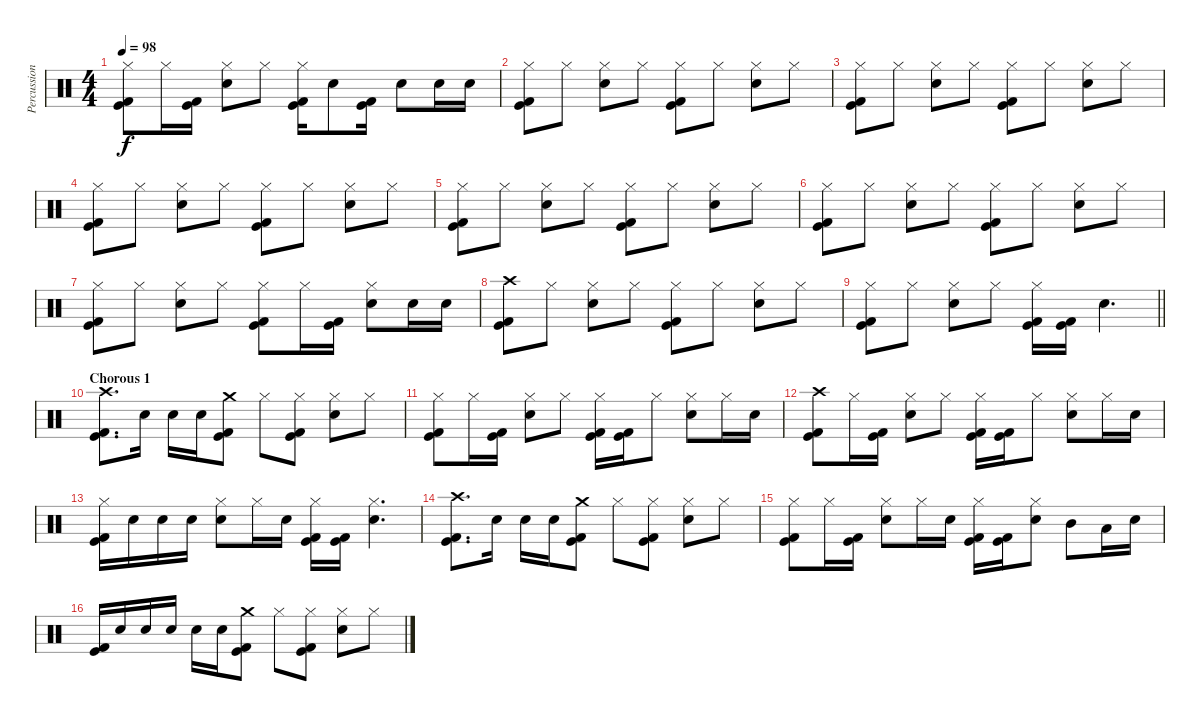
\track ("Percussion" "Percussion") {instrument percussion}
\staff {score}
\articulation defaults
\ts (4 4)
\tempo 98
\clef neutral
\ks c
("Hi-Hat (closed)" "Kick (hit)" "Kick (hit) 2").8{dy f} "Hi-Hat (closed)".16 ("Kick (hit)" "Kick (hit) 2").16 ("Hi-Hat (closed)" "Electric Snare (hit)").8 "Hi-Hat (closed)".8 ("Hi-Hat (closed)" "Kick (hit)" "Kick (hit) 2").16 "Electric Snare (hit)".8 ("Kick (hit)" "Kick (hit) 2").16 "Electric Snare (hit)".8 "Electric Snare (hit)".16 "Electric Snare (hit)".16 |
("Hi-Hat (closed)" "Kick (hit)" "Kick (hit) 2").8 "Hi-Hat (closed)".8 ("Hi-Hat (closed)" "Electric Snare (hit)").8 "Hi-Hat (closed)".8 ("Hi-Hat (closed)" "Kick (hit)" "Kick (hit) 2").8 "Hi-Hat (closed)".8 ("Hi-Hat (closed)" "Electric Snare (hit)").8 "Hi-Hat (closed)".8 |
("Hi-Hat (closed)" "Kick (hit)" "Kick (hit) 2").8 "Hi-Hat (closed)".8 ("Hi-Hat (closed)" "Electric Snare (hit)").8 "Hi-Hat (closed)".8 ("Hi-Hat (closed)" "Kick (hit)" "Kick (hit) 2").8 "Hi-Hat (closed)".8 ("Hi-Hat (closed)" "Electric Snare (hit)").8 "Hi-Hat (closed)".8 |
("Hi-Hat (closed)" "Kick (hit)" "Kick (hit) 2").8 "Hi-Hat (closed)".8 ("Hi-Hat (closed)" "Electric Snare (hit)").8 "Hi-Hat (closed)".8 ("Hi-Hat (closed)" "Kick (hit)" "Kick (hit) 2").8 "Hi-Hat (closed)".8 ("Hi-Hat (closed)" "Electric Snare (hit)").8 "Hi-Hat (closed)".8 |
("Hi-Hat (closed)" "Kick (hit)" "Kick (hit) 2").8 "Hi-Hat (closed)".8 ("Hi-Hat (closed)" "Electric Snare (hit)").8 "Hi-Hat (closed)".8 ("Hi-Hat (closed)" "Kick (hit)" "Kick (hit) 2").8 "Hi-Hat (closed)".8 ("Hi-Hat (closed)" "Electric Snare (hit)").8 "Hi-Hat (closed)".8 |
("Hi-Hat (closed)" "Kick (hit)" "Kick (hit) 2").8 "Hi-Hat (closed)".8 ("Hi-Hat (closed)" "Electric Snare (hit)").8 "Hi-Hat (closed)".8 ("Hi-Hat (closed)" "Kick (hit)" "Kick (hit) 2").8 "Hi-Hat (closed)".8 ("Hi-Hat (closed)" "Electric Snare (hit)").8 "Hi-Hat (closed)".8 |
("Hi-Hat (closed)" "Kick (hit)" "Kick (hit) 2").8 "Hi-Hat (closed)".8 ("Hi-Hat (closed)" "Electric Snare (hit)").8 "Hi-Hat (closed)".8 ("Hi-Hat (closed)" "Kick (hit)" "Kick (hit) 2").8 "Hi-Hat (closed)".16 ("Kick (hit)" "Kick (hit) 2").16 ("Hi-Hat (closed)" "Electric Snare (hit)").8 "Electric Snare (hit)".16 "Electric Snare (hit)".16 |
("Crash high (hit)" "Kick (hit)" "Kick (hit) 2").8 "Hi-Hat (closed)".8 ("Hi-Hat (closed)" "Electric Snare (hit)").8 "Hi-Hat (closed)".8 ("Hi-Hat (closed)" "Kick (hit)" "Kick (hit) 2").8 "Hi-Hat (closed)".8 ("Hi-Hat (closed)" "Electric Snare (hit)").8 "Hi-Hat (closed)".8 |
\barLineRight lightlight
("Hi-Hat (closed)" "Kick (hit)" "Kick (hit) 2").8 "Hi-Hat (closed)".8 ("Hi-Hat (closed)" "Electric Snare (hit)").8 "Hi-Hat (closed)".8 ("Hi-Hat (closed)" "Kick (hit)" "Kick (hit) 2").16 ("Kick (hit)" "Kick (hit) 2").16 "Electric Snare (hit)".4{d} |
\section ("" "Chorous 1")
("Crash high (hit)" "Kick (hit)" "Kick (hit) 2").8{d} "Electric Snare (hit)".16 "Electric Snare (hit)".16 "Electric Snare (hit)".16 ("Crash medium (hit)" "Kick (hit)" "Kick (hit) 2").8 "Hi-Hat (closed)".8 ("Hi-Hat (closed)" "Kick (hit)" "Kick (hit) 2").8 ("Hi-Hat (closed)" "Electric Snare (hit)").8 "Hi-Hat (closed)".8 |
("Hi-Hat (closed)" "Kick (hit)" "Kick (hit) 2").8 "Hi-Hat (closed)".16 ("Kick (hit)" "Kick (hit) 2").16 ("Hi-Hat (closed)" "Electric Snare (hit)").8 "Hi-Hat (closed)".8 ("Hi-Hat (closed)" "Kick (hit)" "Kick (hit) 2").16 ("Kick (hit)" "Kick (hit) 2").16 "Hi-Hat (closed)".8 ("Hi-Hat (closed)" "Electric Snare (hit)").8 "Hi-Hat (closed)".16 "Electric Snare (hit)".16 |
("Crash high (hit)" "Kick (hit)" "Kick (hit) 2").8 "Hi-Hat (closed)".16 ("Kick (hit)" "Kick (hit) 2").16 ("Hi-Hat (closed)" "Electric Snare (hit)").8 "Hi-Hat (closed)".8 ("Hi-Hat (closed)" "Kick (hit)" "Kick (hit) 2").16 ("Kick (hit)" "Kick (hit) 2").16 "Hi-Hat (closed)".8 ("Hi-Hat (closed)" "Electric Snare (hit)").8 "Hi-Hat (closed)".16 "Electric Snare (hit)".16 |
("Hi-Hat (closed)" "Kick (hit)" "Kick (hit) 2").16 "Electric Snare (hit)".16 "Electric Snare (hit)".16 "Electric Snare (hit)".16 ("Hi-Hat (closed)" "Electric Snare (hit)").8 "Hi-Hat (closed)".16 "Electric Snare (hit)".16 ("Hi-Hat (closed)" "Kick (hit)" "Kick (hit) 2").16 ("Kick (hit)" "Kick (hit) 2").16 ("Hi-Hat (closed)" "Electric Snare (hit)").4{d} |
("Crash high (hit)" "Kick (hit)" "Kick (hit) 2").8{d} "Electric Snare (hit)".16 "Electric Snare (hit)".16 "Electric Snare (hit)".16 ("Crash medium (hit)" "Kick (hit)" "Kick (hit) 2").8 "Hi-Hat (closed)".8 ("Hi-Hat (closed)" "Kick (hit)" "Kick (hit) 2").8 ("Hi-Hat (closed)" "Electric Snare (hit)").8 "Hi-Hat (closed)".8 |
("Hi-Hat (closed)" "Kick (hit)" "Kick (hit) 2").8 "Hi-Hat (closed)".16 ("Kick (hit)" "Kick (hit) 2").16 ("Hi-Hat (closed)" "Electric Snare (hit)").8 "Hi-Hat (closed)".16 "Electric Snare (hit)".16 ("Hi-Hat (closed)" "Kick (hit)" "Kick (hit) 2").16 ("Kick (hit)" "Kick (hit) 2").16 ("Hi-Hat (closed)" "Electric Snare (hit)").8 "Mid Tom (hit)".8 "Low Tom (hit)".16 "Electric Snare (hit)".16 |
("Kick (hit)" "Kick (hit) 2").16 "Electric Snare (hit)".16 "Electric Snare (hit)".16 "Electric Snare (hit)".16 "Electric Snare (hit)".16 "Electric Snare (hit)".16 ("Crash medium (hit)" "Kick (hit)" "Kick (hit) 2").8 "Hi-Hat (closed)".8 ("Hi-Hat (closed)" "Kick (hit)" "Kick (hit) 2").8 ("Hi-Hat (closed)" "Electric Snare (hit)").8 "Hi-Hat (closed)".8
